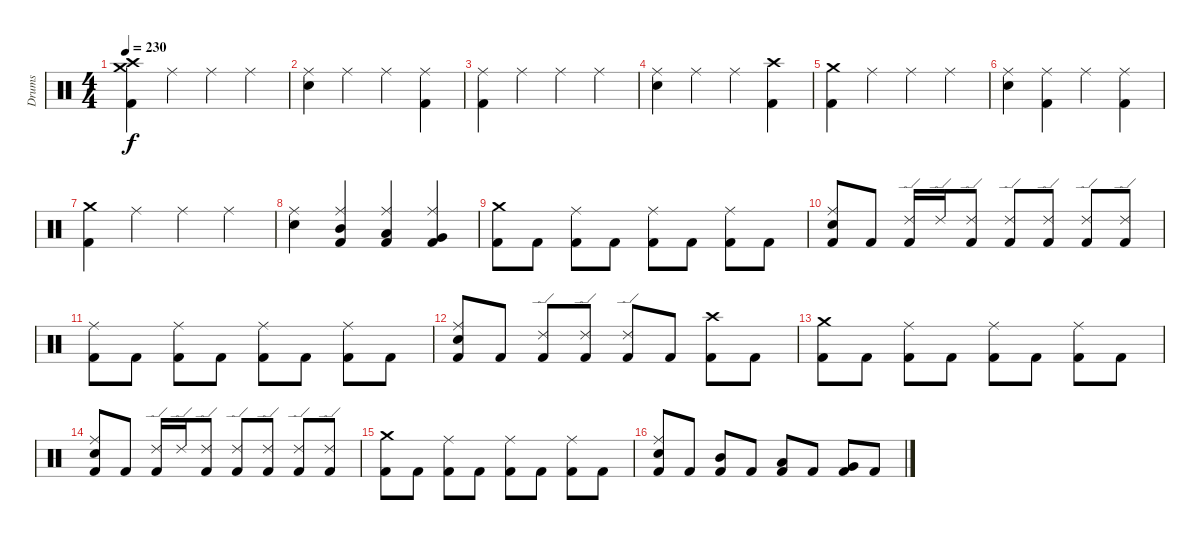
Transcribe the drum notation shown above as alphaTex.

\track ("Drums" "Drums") {instrument percussion}
\staff {score}
\articulation defaults
\ts (4 4)
\tempo 230
\clef neutral
\ks c
("Crash medium (hit)" "Crash high (hit)" "Kick (hit) 2").4{dy f} "Ride (middle)".4 "Ride (middle)".4 "Ride (middle)".4 |
("Ride (middle)" "Electric Snare (hit)").4 "Ride (middle)".4 "Ride (middle)".4 ("Ride (middle)" "Kick (hit) 2").4 |
("Ride (middle)" "Kick (hit) 2").4 "Ride (middle)".4 "Ride (middle)".4 "Ride (middle)".4 |
("Ride (middle)" "Electric Snare (hit)").4 "Ride (middle)".4 "Ride (middle)".4 ("Crash high (hit)" "Kick (hit) 2").4 |
("Crash medium (hit)" "Kick (hit) 2").4 "Ride (middle)".4 "Ride (middle)".4 "Ride (middle)".4 |
("Ride (middle)" "Electric Snare (hit)").4 ("Ride (middle)" "Kick (hit) 2").4 "Ride (middle)".4 ("Ride (middle)" "Kick (hit) 2").4 |
("Crash medium (hit)" "Kick (hit) 2").4 "Ride (middle)".4 "Ride (middle)".4 "Ride (middle)".4 |
("Ride (middle)" "Electric Snare (hit)").4 ("Ride (middle)" "Mid Tom (hit)" "Kick (hit) 2").4 ("Ride (middle)" "Low Tom (hit)" "Kick (hit) 2").4 ("Ride (middle)" "Very Low Tom (hit)" "Kick (hit) 2").4 |
("Crash medium (hit)" "Kick (hit) 2").8 "Kick (hit) 2".8 ("Ride (middle)" "Kick (hit) 2").8 "Kick (hit) 2".8 ("Ride (middle)" "Kick (hit) 2").8 "Kick (hit) 2".8 ("Ride (middle)" "Kick (hit) 2").8 "Kick (hit) 2".8 |
("Ride (middle)" "Electric Snare (hit)" "Kick (hit) 2").8 "Kick (hit) 2".8 ("Ride (edge) 2" "Kick (hit) 2").16 "Ride (edge) 2".16 ("Ride (edge) 2" "Kick (hit) 2").8 ("Ride (edge) 2" "Kick (hit) 2").8 ("Ride (edge) 2" "Kick (hit) 2").8 ("Ride (edge) 2" "Kick (hit) 2").8 ("Ride (edge) 2" "Kick (hit) 2").8 |
("Ride (middle)" "Kick (hit) 2").8 "Kick (hit) 2".8 ("Ride (middle)" "Kick (hit) 2").8 "Kick (hit) 2".8 ("Ride (middle)" "Kick (hit) 2").8 "Kick (hit) 2".8 ("Ride (middle)" "Kick (hit) 2").8 "Kick (hit) 2".8 |
("Ride (middle)" "Electric Snare (hit)" "Kick (hit) 2").8 "Kick (hit) 2".8 ("Ride (edge) 2" "Kick (hit) 2").8 ("Ride (edge) 2" "Kick (hit) 2").8 ("Ride (edge) 2" "Kick (hit) 2").8 "Kick (hit) 2".8 ("Crash high (hit)" "Kick (hit) 2").8 "Kick (hit) 2".8 |
("Crash medium (hit)" "Kick (hit) 2").8 "Kick (hit) 2".8 ("Ride (middle)" "Kick (hit) 2").8 "Kick (hit) 2".8 ("Ride (middle)" "Kick (hit) 2").8 "Kick (hit) 2".8 ("Ride (middle)" "Kick (hit) 2").8 "Kick (hit) 2".8 |
("Ride (middle)" "Electric Snare (hit)" "Kick (hit) 2").8 "Kick (hit) 2".8 ("Ride (edge) 2" "Kick (hit) 2").16 "Ride (edge) 2".16 ("Ride (edge) 2" "Kick (hit) 2").8 ("Ride (edge) 2" "Kick (hit) 2").8 ("Ride (edge) 2" "Kick (hit) 2").8 ("Ride (edge) 2" "Kick (hit) 2").8 ("Ride (edge) 2" "Kick (hit) 2").8 |
("Crash medium (hit)" "Kick (hit) 2").8 "Kick (hit) 2".8 ("Ride (middle)" "Kick (hit) 2").8 "Kick (hit) 2".8 ("Ride (middle)" "Kick (hit) 2").8 "Kick (hit) 2".8 ("Ride (middle)" "Kick (hit) 2").8 "Kick (hit) 2".8 |
("Ride (middle)" "Electric Snare (hit)" "Kick (hit) 2").8 "Kick (hit) 2".8 ("Mid Tom (hit)" "Kick (hit) 2").8 "Kick (hit) 2".8 ("Low Tom (hit)" "Kick (hit) 2").8 "Kick (hit) 2".8 ("Very Low Tom (hit)" "Kick (hit) 2").8 "Kick (hit) 2".8
